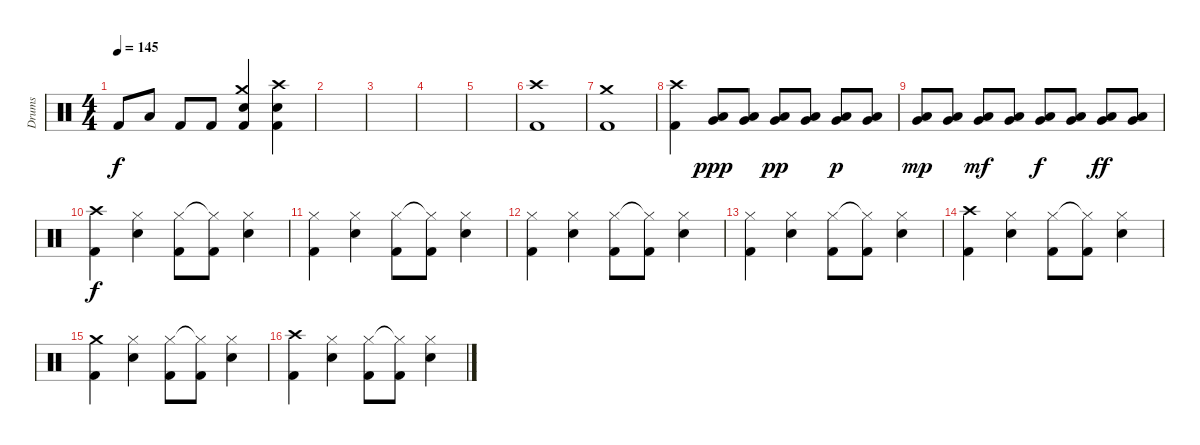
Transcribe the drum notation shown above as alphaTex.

\track ("Drums" "Drums") {instrument percussion}
\staff {score}
\articulation defaults
\ts (4 4)
\tempo 145
\clef neutral
\ks c "Kick (hit) 2".8{dy f} "Low Floor Tom (hit)".8 "Kick (hit) 2".8 "Kick (hit) 2".8
("Crash medium (hit)" "Electric Snare (hit)" "Kick (hit) 2").4 ("Crash high (hit)" "Electric Snare (hit)" "Kick (hit) 2").4 |
|
|
|
|
("Crash high (hit)" "Kick (hit) 2").1 |
("Crash medium (hit)" "Kick (hit) 2").1 |
("Crash high (hit)" "Kick (hit) 2").4 ("Very Low Tom (hit)" "Low Floor Tom (hit)").8{dy ppp} ("Very Low Tom (hit)" "Low Floor Tom (hit)").8 ("Very Low Tom (hit)" "Low Floor Tom (hit)").8{dy pp} ("Very Low Tom (hit)" "Low Floor Tom (hit)").8 ("Very Low Tom (hit)" "Low Floor Tom (hit)").8{dy p} ("Very Low Tom (hit)" "Low Floor Tom (hit)").8 |
("Very Low Tom (hit)" "Low Floor Tom (hit)").8{dy mp} ("Very Low Tom (hit)" "Low Floor Tom (hit)").8 ("Very Low Tom (hit)" "Low Floor Tom (hit)").8{dy mf} ("Very Low Tom (hit)" "Low Floor Tom (hit)").8 ("Very Low Tom (hit)" "Low Floor Tom (hit)").8{dy f} ("Very Low Tom (hit)" "Low Floor Tom (hit)").8 ("Very Low Tom (hit)" "Low Floor Tom (hit)").8{dy ff} ("Very Low Tom (hit)" "Low Floor Tom (hit)").8 |
("Crash high (hit)" "Kick (hit) 2").4{dy f} ("Hi-Hat (closed)" "Electric Snare (hit)").4 ("Hi-Hat (closed)" "Kick (hit) 2").8 ("Hi-Hat (closed)"{t} "Kick (hit) 2").8 ("Hi-Hat (closed)" "Electric Snare (hit)").4 |
("Hi-Hat (closed)" "Kick (hit) 2").4 ("Hi-Hat (closed)" "Electric Snare (hit)").4 ("Hi-Hat (closed)" "Kick (hit) 2").8 ("Hi-Hat (closed)"{t} "Kick (hit) 2").8 ("Hi-Hat (closed)" "Electric Snare (hit)").4 |
("Hi-Hat (closed)" "Kick (hit) 2").4 ("Hi-Hat (closed)" "Electric Snare (hit)").4 ("Hi-Hat (closed)" "Kick (hit) 2").8 ("Hi-Hat (closed)"{t} "Kick (hit) 2").8 ("Hi-Hat (closed)" "Electric Snare (hit)").4 |
("Hi-Hat (closed)" "Kick (hit) 2").4 ("Hi-Hat (closed)" "Electric Snare (hit)").4 ("Hi-Hat (closed)" "Kick (hit) 2").8 ("Hi-Hat (closed)"{t} "Kick (hit) 2").8 ("Hi-Hat (closed)" "Electric Snare (hit)").4 |
("Crash high (hit)" "Kick (hit) 2").4 ("Hi-Hat (closed)" "Electric Snare (hit)").4 ("Hi-Hat (closed)" "Kick (hit) 2").8 ("Hi-Hat (closed)"{t} "Kick (hit) 2").8 ("Hi-Hat (closed)" "Electric Snare (hit)").4 |
("Crash medium (hit)" "Kick (hit) 2").4 ("Hi-Hat (closed)" "Electric Snare (hit)").4 ("Hi-Hat (closed)" "Kick (hit) 2").8 ("Hi-Hat (closed)"{t} "Kick (hit) 2").8 ("Hi-Hat (closed)" "Electric Snare (hit)").4 |
("Crash high (hit)" "Kick (hit) 2").4 ("Hi-Hat (closed)" "Electric Snare (hit)").4 ("Hi-Hat (closed)" "Kick (hit) 2").8 ("Hi-Hat (closed)"{t} "Kick (hit) 2").8 ("Hi-Hat (closed)" "Electric Snare (hit)").4
